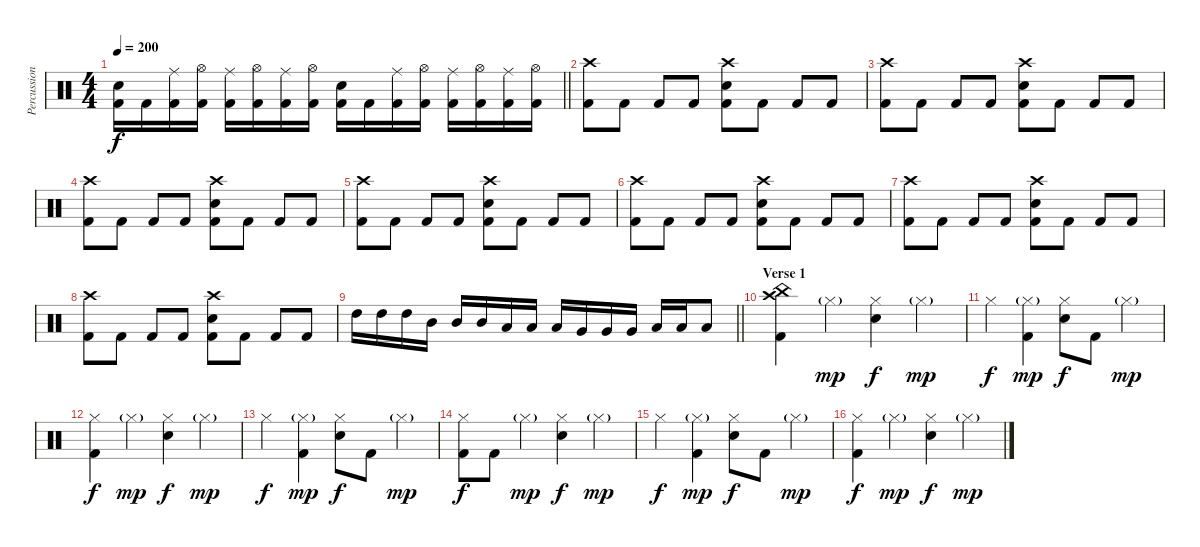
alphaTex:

\track ("Percussion" "Percussion") {instrument percussion}
\staff {score}
\articulation defaults
\ts (4 4)
\tempo 200
\clef neutral
\barLineRight lightlight
\ks c
("Electric Snare (hit)" "Kick (hit) 2").16{dy f} "Kick (hit) 2".16 ("Ride (middle)" "Kick (hit) 2").16 ("Hi-Hat (open)" "Kick (hit) 2").16 ("Ride (middle)" "Kick (hit) 2").16 ("Hi-Hat (open)" "Kick (hit) 2").16 ("Ride (middle)" "Kick (hit) 2").16 ("Hi-Hat (open)" "Kick (hit) 2").16 ("Electric Snare (hit)" "Kick (hit) 2").16 "Kick (hit) 2".16 ("Ride (middle)" "Kick (hit) 2").16 ("Hi-Hat (open)" "Kick (hit) 2").16 ("Ride (middle)" "Kick (hit) 2").16 ("Hi-Hat (open)" "Kick (hit) 2").16 ("Ride (middle)" "Kick (hit) 2").16 ("Hi-Hat (open)" "Kick (hit) 2").16 |
("Crash high (hit)" "Kick (hit) 2").8 "Kick (hit) 2".8 "Kick (hit) 2".8 "Kick (hit) 2".8 ("Crash high (hit)" "Electric Snare (hit)" "Kick (hit) 2").8 "Kick (hit) 2".8 "Kick (hit) 2".8 "Kick (hit) 2".8 |
("Crash high (hit)" "Kick (hit) 2").8 "Kick (hit) 2".8 "Kick (hit) 2".8 "Kick (hit) 2".8 ("Crash high (hit)" "Electric Snare (hit)" "Kick (hit) 2").8 "Kick (hit) 2".8 "Kick (hit) 2".8 "Kick (hit) 2".8 |
("Crash high (hit)" "Kick (hit) 2").8 "Kick (hit) 2".8 "Kick (hit) 2".8 "Kick (hit) 2".8 ("Crash high (hit)" "Electric Snare (hit)" "Kick (hit) 2").8 "Kick (hit) 2".8 "Kick (hit) 2".8 "Kick (hit) 2".8 |
("Crash high (hit)" "Kick (hit) 2").8 "Kick (hit) 2".8 "Kick (hit) 2".8 "Kick (hit) 2".8 ("Crash high (hit)" "Electric Snare (hit)" "Kick (hit) 2").8 "Kick (hit) 2".8 "Kick (hit) 2".8 "Kick (hit) 2".8 |
("Crash high (hit)" "Kick (hit) 2").8 "Kick (hit) 2".8 "Kick (hit) 2".8 "Kick (hit) 2".8 ("Crash high (hit)" "Electric Snare (hit)" "Kick (hit) 2").8 "Kick (hit) 2".8 "Kick (hit) 2".8 "Kick (hit) 2".8 |
("Crash high (hit)" "Kick (hit) 2").8 "Kick (hit) 2".8 "Kick (hit) 2".8 "Kick (hit) 2".8 ("Crash high (hit)" "Electric Snare (hit)" "Kick (hit) 2").8 "Kick (hit) 2".8 "Kick (hit) 2".8 "Kick (hit) 2".8 |
("Crash high (hit)" "Kick (hit) 2").8 "Kick (hit) 2".8 "Kick (hit) 2".8 "Kick (hit) 2".8 ("Crash high (hit)" "Electric Snare (hit)" "Kick (hit) 2").8 "Kick (hit) 2".8 "Kick (hit) 2".8 "Kick (hit) 2".8 |
\barLineRight lightlight "High Tom (hit)".16 "High Tom (hit)".16 "High Tom (hit)".16 "Mid Tom (hit)".16 "Mid Tom (hit)".16 "Mid Tom (hit)".16 "Low Tom (hit)".16 "Low Tom (hit)".16 "Low Tom (hit)".16 "Very Low Tom (hit)".16 "Very Low Tom (hit)".16 "Very Low Tom (hit)".16 "Low Floor Tom (hit)".16 "Low Floor Tom (hit)".16 "Low Floor Tom (hit)".8
|
\section ("" "Verse 1")
("Crash high (hit)" "China (hit)" "Kick (hit) 2").4 "Hi-Hat (closed)"{g}.4{dy mp} ("Hi-Hat (closed)" "Electric Snare (hit)").4{dy f} "Hi-Hat (closed)"{g}.4{dy mp} |
"Hi-Hat (closed)".4{dy f} ("Hi-Hat (closed)"{g} "Kick (hit) 2").4{dy mp} ("Hi-Hat (closed)" "Electric Snare (hit)").8{dy f} "Kick (hit) 2".8 "Hi-Hat (closed)"{g}.4{dy mp} |
("Hi-Hat (closed)" "Kick (hit) 2").4{dy f} "Hi-Hat (closed)"{g}.4{dy mp} ("Hi-Hat (closed)" "Electric Snare (hit)").4{dy f} "Hi-Hat (closed)"{g}.4{dy mp} |
"Hi-Hat (closed)".4{dy f} ("Hi-Hat (closed)"{g} "Kick (hit) 2").4{dy mp} ("Hi-Hat (closed)" "Electric Snare (hit)").8{dy f} "Kick (hit) 2".8 "Hi-Hat (closed)"{g}.4{dy mp} |
("Hi-Hat (closed)" "Kick (hit) 2").8{dy f} "Kick (hit) 2".8 "Hi-Hat (closed)"{g}.4{dy mp} ("Hi-Hat (closed)" "Electric Snare (hit)").4{dy f} "Hi-Hat (closed)"{g}.4{dy mp} |
"Hi-Hat (closed)".4{dy f} ("Hi-Hat (closed)"{g} "Kick (hit) 2").4{dy mp} ("Hi-Hat (closed)" "Electric Snare (hit)").8{dy f} "Kick (hit) 2".8 "Hi-Hat (closed)"{g}.4{dy mp} |
("Hi-Hat (closed)" "Kick (hit) 2").4{dy f} "Hi-Hat (closed)"{g}.4{dy mp} ("Hi-Hat (closed)" "Electric Snare (hit)").4{dy f} "Hi-Hat (closed)"{g}.4{dy mp}
